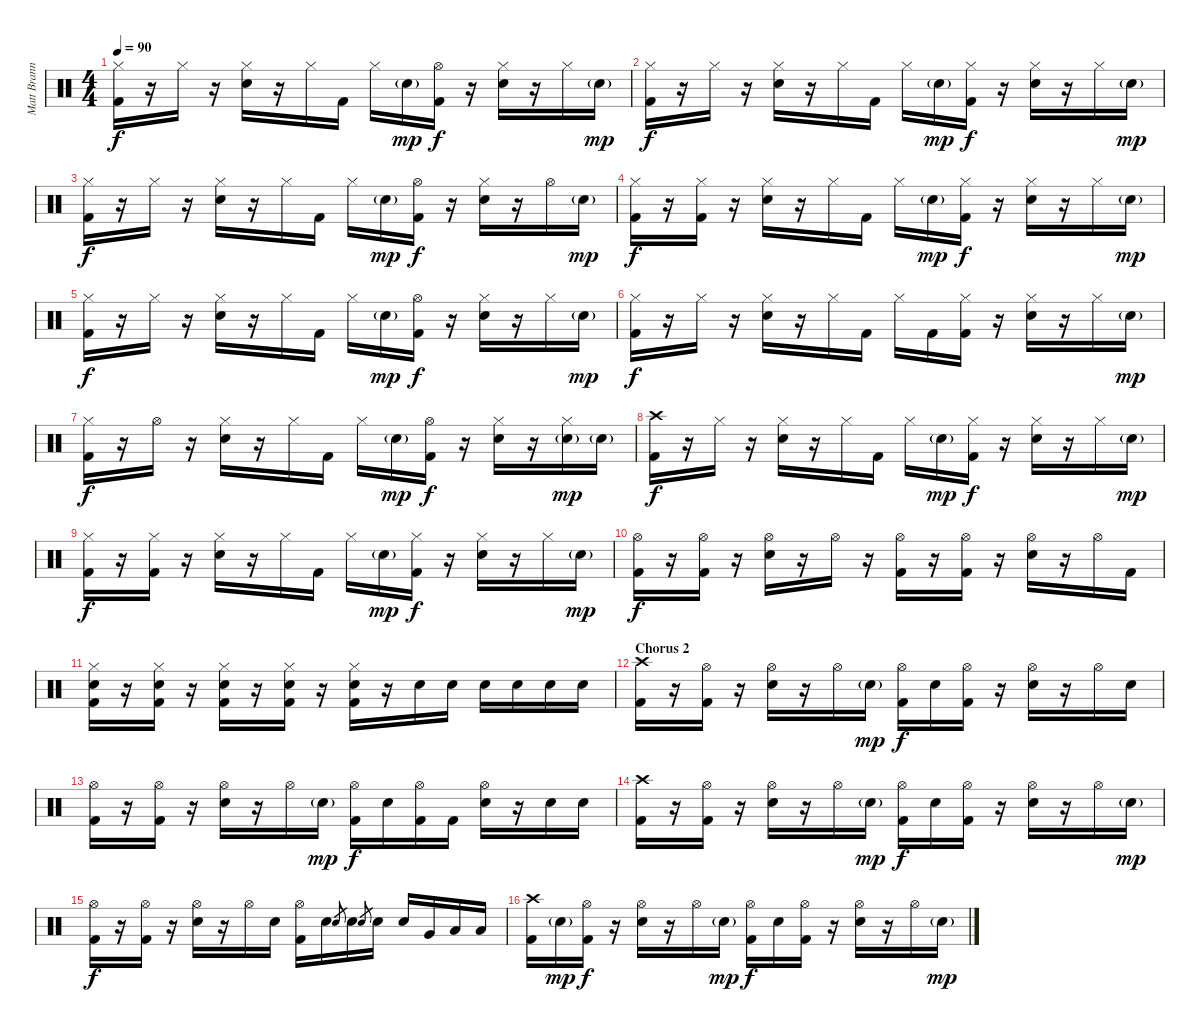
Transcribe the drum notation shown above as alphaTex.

\track ("Matt Brann - Drums" "Matt Brann") {instrument percussion}
\staff {score}
\articulation defaults
\ts (4 4)
\tempo 90
\clef neutral
\ks c
("Hi-Hat (closed)" "Kick (hit) 2").16{dy f} r.16 "Hi-Hat (closed)".16 r.16 ("Hi-Hat (closed)" "Snare (hit) 2").16 r.16 "Hi-Hat (closed)".16 "Kick (hit) 2".16 "Hi-Hat (closed)".16 "Snare (hit) 2"{g}.16{dy mp} ("Hi-Hat (open)" "Kick (hit) 2").16{dy f} r.16 ("Hi-Hat (closed)" "Snare (hit) 2").16 r.16 "Hi-Hat (closed)".16 "Snare (hit) 2"{g}.16{dy mp} |
("Hi-Hat (closed)" "Kick (hit) 2").16{dy f} r.16 "Hi-Hat (closed)".16 r.16 ("Hi-Hat (closed)" "Snare (hit) 2").16 r.16 "Hi-Hat (closed)".16 "Kick (hit) 2".16 "Hi-Hat (closed)".16 "Snare (hit) 2"{g}.16{dy mp} ("Hi-Hat (closed)" "Kick (hit) 2").16{dy f} r.16 ("Hi-Hat (closed)" "Snare (hit) 2").16 r.16 "Hi-Hat (closed)".16 "Snare (hit) 2"{g}.16{dy mp} |
("Hi-Hat (closed)" "Kick (hit) 2").16{dy f} r.16 "Hi-Hat (closed)".16 r.16 ("Hi-Hat (closed)" "Snare (hit) 2").16 r.16 "Hi-Hat (closed)".16 "Kick (hit) 2".16 "Hi-Hat (closed)".16 "Snare (hit) 2"{g}.16{dy mp} ("Hi-Hat (open)" "Kick (hit) 2").16{dy f} r.16 ("Hi-Hat (closed)" "Snare (hit) 2").16 r.16 "Hi-Hat (open)".16 "Snare (hit) 2"{g}.16{dy mp} |
("Hi-Hat (closed)" "Kick (hit) 2").16{dy f} r.16 ("Hi-Hat (closed)" "Kick (hit) 2").16 r.16 ("Hi-Hat (closed)" "Snare (hit) 2").16 r.16 "Hi-Hat (closed)".16 "Kick (hit) 2".16 "Hi-Hat (closed)".16 "Snare (hit) 2"{g}.16{dy mp} ("Hi-Hat (closed)" "Kick (hit) 2").16{dy f} r.16 ("Hi-Hat (closed)" "Snare (hit) 2").16 r.16 "Hi-Hat (closed)".16 "Snare (hit) 2"{g}.16{dy mp} |
("Hi-Hat (closed)" "Kick (hit) 2").16{dy f} r.16 "Hi-Hat (closed)".16 r.16 ("Hi-Hat (closed)" "Snare (hit) 2").16 r.16 "Hi-Hat (closed)".16 "Kick (hit) 2".16 "Hi-Hat (closed)".16 "Snare (hit) 2"{g}.16{dy mp} ("Hi-Hat (open)" "Kick (hit) 2").16{dy f} r.16 ("Hi-Hat (closed)" "Snare (hit) 2").16 r.16 "Hi-Hat (closed)".16 "Snare (hit) 2"{g}.16{dy mp} |
("Hi-Hat (closed)" "Kick (hit) 2").16{dy f} r.16 "Hi-Hat (closed)".16 r.16 ("Hi-Hat (closed)" "Snare (hit) 2").16 r.16 "Hi-Hat (closed)".16 "Kick (hit) 2".16 "Hi-Hat (closed)".16 "Kick (hit) 2".16 ("Hi-Hat (closed)" "Kick (hit) 2").16 r.16 ("Hi-Hat (closed)" "Snare (hit) 2").16 r.16 "Hi-Hat (closed)".16 "Snare (hit) 2"{g}.16{dy mp} |
("Hi-Hat (closed)" "Kick (hit) 2").16{dy f} r.16 "Hi-Hat (open)".16 r.16 ("Hi-Hat (closed)" "Snare (hit) 2").16 r.16 "Hi-Hat (closed)".16 "Kick (hit) 2".16 "Hi-Hat (closed)".16 "Snare (hit) 2"{g}.16{dy mp} ("Hi-Hat (open)" "Kick (hit) 2").16{dy f} r.16 ("Hi-Hat (closed)" "Snare (hit) 2").16 r.16 ("Hi-Hat (closed)" "Snare (hit) 2"{g}).16{dy mp} "Snare (hit) 2"{g}.16 |
("Crash high (hit)" "Kick (hit) 2").16{dy f} r.16 "Hi-Hat (closed)".16 r.16 ("Hi-Hat (closed)" "Snare (hit) 2").16 r.16 "Hi-Hat (closed)".16 "Kick (hit) 2".16 "Hi-Hat (closed)".16 "Snare (hit) 2"{g}.16{dy mp} ("Hi-Hat (closed)" "Kick (hit) 2").16{dy f} r.16 ("Hi-Hat (closed)" "Snare (hit) 2").16 r.16 "Hi-Hat (closed)".16 "Snare (hit) 2"{g}.16{dy mp} |
("Hi-Hat (closed)" "Kick (hit) 2").16{dy f} r.16 ("Hi-Hat (closed)" "Kick (hit) 2").16 r.16 ("Hi-Hat (closed)" "Snare (hit) 2").16 r.16 "Hi-Hat (closed)".16 "Kick (hit) 2".16 "Hi-Hat (closed)".16 "Snare (hit) 2"{g}.16{dy mp} ("Hi-Hat (closed)" "Kick (hit) 2").16{dy f} r.16 ("Hi-Hat (closed)" "Snare (hit) 2").16 r.16 "Hi-Hat (closed)".16 "Snare (hit) 2"{g}.16{dy mp} |
("Hi-Hat (open)" "Kick (hit) 2").16{dy f} r.16 ("Hi-Hat (open)" "Kick (hit) 2").16 r.16 ("Hi-Hat (open)" "Snare (hit) 2").16 r.16 "Hi-Hat (open)".16 r.16 ("Hi-Hat (open)" "Kick (hit) 2").16 r.16 ("Hi-Hat (open)" "Kick (hit) 2").16 r.16 ("Hi-Hat (open)" "Snare (hit) 2").16 r.16 "Hi-Hat (open)".16 "Kick (hit) 2".16 |
("Hi-Hat (closed)" "Snare (hit) 2" "Kick (hit) 2").16 r.16 ("Hi-Hat (closed)" "Snare (hit) 2" "Kick (hit) 2").16 r.16 ("Hi-Hat (closed)" "Snare (hit) 2" "Kick (hit) 2").16 r.16 ("Hi-Hat (closed)" "Snare (hit) 2" "Kick (hit) 2").16 r.16 ("Hi-Hat (closed)" "Snare (hit) 2" "Kick (hit) 2").16 r.16 "Snare (hit) 2".16 "Snare (hit) 2".16 "Snare (hit) 2".16 "Snare (hit) 2".16 "Snare (hit) 2".16 "Snare (hit) 2".16 |
\section ("" "Chorus 2")
("Crash high (hit)" "Kick (hit) 2").16 r.16 ("Hi-Hat (open)" "Kick (hit) 2").16 r.16 ("Hi-Hat (open)" "Snare (hit) 2").16 r.16 "Hi-Hat (open)".16 "Snare (hit) 2"{g}.16{dy mp} ("Hi-Hat (open)" "Kick (hit) 2").16{dy f} "Snare (hit) 2".16 ("Hi-Hat (open)" "Kick (hit) 2").16 r.16 ("Hi-Hat (open)" "Snare (hit) 2").16 r.16 "Hi-Hat (open)".16 "Snare (hit) 2".16 |
("Hi-Hat (open)" "Kick (hit) 2").16 r.16 ("Hi-Hat (open)" "Kick (hit) 2").16 r.16 ("Hi-Hat (open)" "Snare (hit) 2").16 r.16 "Hi-Hat (open)".16 "Snare (hit) 2"{g}.16{dy mp} ("Hi-Hat (open)" "Kick (hit) 2").16{dy f} "Snare (hit) 2".16 ("Hi-Hat (open)" "Kick (hit) 2").16 "Kick (hit) 2".16 ("Hi-Hat (open)" "Snare (hit) 2").16 r.16 "Snare (hit) 2".16 "Snare (hit) 2".16 |
("Crash high (hit)" "Kick (hit) 2").16 r.16 ("Hi-Hat (open)" "Kick (hit) 2").16 r.16 ("Hi-Hat (open)" "Snare (hit) 2").16 r.16 "Hi-Hat (open)".16 "Snare (hit) 2"{g}.16{dy mp} ("Hi-Hat (open)" "Kick (hit) 2").16{dy f} "Snare (hit) 2".16 ("Hi-Hat (open)" "Kick (hit) 2").16 r.16 ("Hi-Hat (open)" "Snare (hit) 2").16 r.16 "Hi-Hat (open)".16 "Snare (hit) 2"{g}.16{dy mp} |
("Hi-Hat (open)" "Kick (hit) 2").16{dy f} r.16 ("Hi-Hat (open)" "Kick (hit) 2").16 r.16 ("Hi-Hat (open)" "Snare (hit) 2").16 r.16 "Hi-Hat (open)".16 "Snare (hit) 2".16 ("Hi-Hat (open)" "Kick (hit) 2").16 "Snare (hit) 2".16 "Snare (hit) 2".8{gr} "Snare (hit) 2".16 "Snare (hit) 2".8{gr} "Snare (hit) 2".16 "Snare (hit) 2".16 "Very Low Tom (hit)".16 "Low Floor Tom (hit)".16 "Low Floor Tom (hit)".16 |
("Crash high (hit)" "Kick (hit) 2").16 "Snare (hit) 2"{g}.16{dy mp} ("Hi-Hat (open)" "Kick (hit) 2").16{dy f} r.16 ("Hi-Hat (open)" "Snare (hit) 2").16 r.16 "Hi-Hat (open)".16 "Snare (hit) 2"{g}.16{dy mp} ("Hi-Hat (open)" "Kick (hit) 2").16{dy f} "Snare (hit) 2".16 ("Hi-Hat (open)" "Kick (hit) 2").16 r.16 ("Hi-Hat (open)" "Snare (hit) 2").16 r.16 "Hi-Hat (open)".16 "Snare (hit) 2"{g}.16{dy mp}
